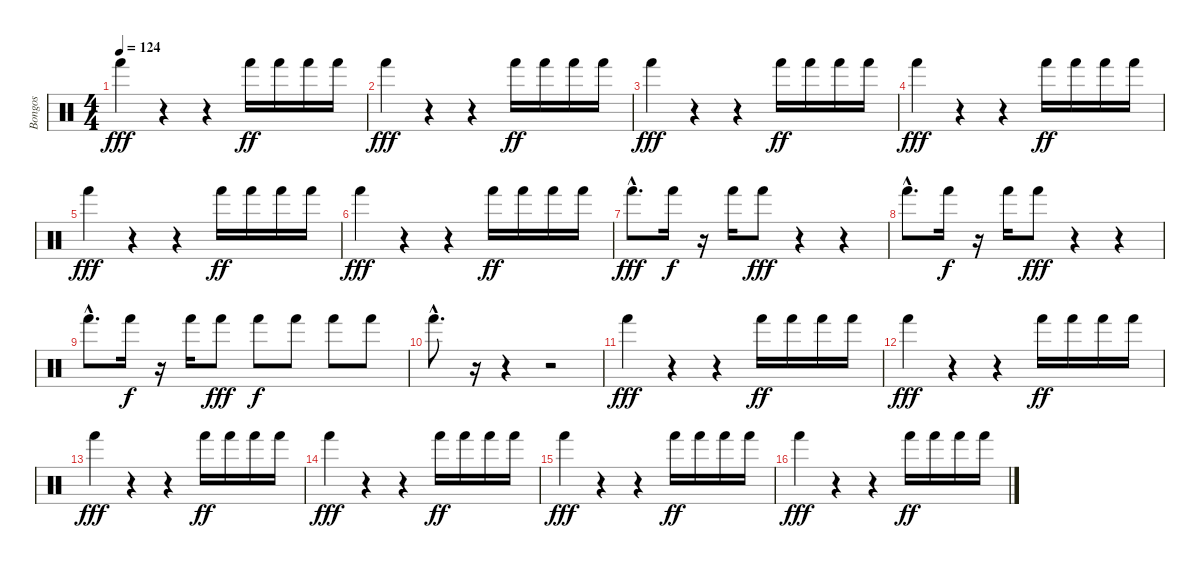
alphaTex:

\track ("Bongos" "Bongos") {instrument percussion}
\staff {score}
\articulation defaults
\ts (4 4)
\tempo 124
\clef neutral
\ks c "Hand (hit)".4{dy fff}
r.4 r.4 "Hand (hit)".16{dy ff} "Hand (hit)".16 "Hand (hit)".16 "Hand (hit)".16 |
"Hand (hit)".4{dy fff} r.4 r.4 "Hand (hit)".16{dy ff} "Hand (hit)".16 "Hand (hit)".16 "Hand (hit)".16 |
"Hand (hit)".4{dy fff} r.4 r.4 "Hand (hit)".16{dy ff} "Hand (hit)".16 "Hand (hit)".16 "Hand (hit)".16 |
"Hand (hit)".4{dy fff} r.4 r.4 "Hand (hit)".16{dy ff} "Hand (hit)".16 "Hand (hit)".16 "Hand (hit)".16 |
"Hand (hit)".4{dy fff} r.4 r.4 "Hand (hit)".16{dy ff} "Hand (hit)".16 "Hand (hit)".16 "Hand (hit)".16 |
"Hand (hit)".4{dy fff} r.4 r.4 "Hand (hit)".16{dy ff} "Hand (hit)".16 "Hand (hit)".16 "Hand (hit)".16 |
"Hand (hit)"{hac}.8{d dy fff} "Hand (hit)".16{dy f} r.16 "Hand (hit)".16 "Hand (hit)".8{dy fff} r.4 r.4 |
"Hand (hit)"{hac}.8{d} "Hand (hit)".16{dy f} r.16 "Hand (hit)".16 "Hand (hit)".8{dy fff} r.4 r.4 |
"Hand (hit)"{hac}.8{d} "Hand (hit)".16{dy f} r.16 "Hand (hit)".16 "Hand (hit)".8{dy fff} "Hand (hit)".8{dy f} "Hand (hit)".8 "Hand (hit)".8 "Hand (hit)".8 |
"Hand (hit)"{hac}.8{d} r.16 r.4 r.2 |
"Hand (hit)".4{dy fff} r.4 r.4 "Hand (hit)".16{dy ff} "Hand (hit)".16 "Hand (hit)".16 "Hand (hit)".16 |
"Hand (hit)".4{dy fff} r.4 r.4 "Hand (hit)".16{dy ff} "Hand (hit)".16 "Hand (hit)".16 "Hand (hit)".16 |
"Hand (hit)".4{dy fff} r.4 r.4 "Hand (hit)".16{dy ff} "Hand (hit)".16 "Hand (hit)".16 "Hand (hit)".16 |
"Hand (hit)".4{dy fff} r.4 r.4 "Hand (hit)".16{dy ff} "Hand (hit)".16 "Hand (hit)".16 "Hand (hit)".16 |
"Hand (hit)".4{dy fff} r.4 r.4 "Hand (hit)".16{dy ff} "Hand (hit)".16 "Hand (hit)".16 "Hand (hit)".16 |
"Hand (hit)".4{dy fff} r.4 r.4 "Hand (hit)".16{dy ff} "Hand (hit)".16 "Hand (hit)".16 "Hand (hit)".16
